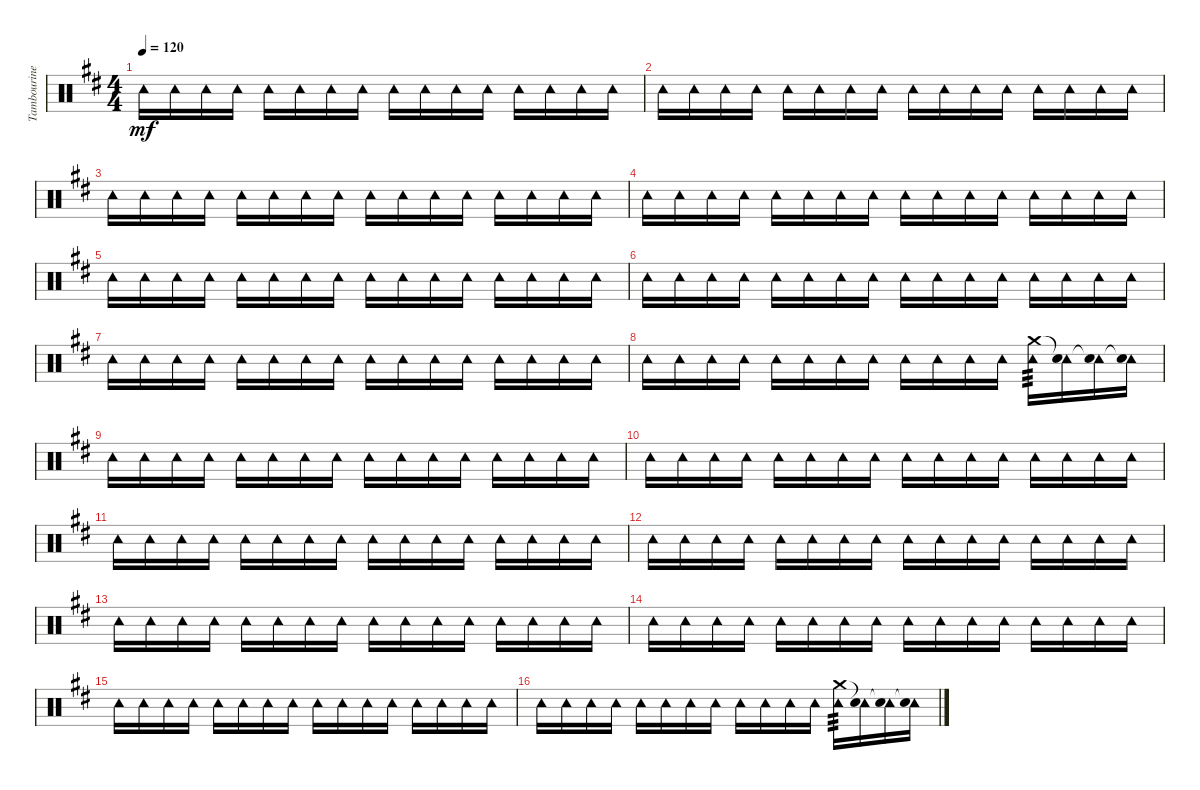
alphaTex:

\track ("Tambourine" "Tambourine") {instrument percussion}
\staff {score}
\articulation defaults
\ts (4 4)
\tempo 120
\clef neutral
\ks d "Tambourine (hit)".16{dy mf} "Tambourine (hit)".16 "Tambourine (hit)".16 "Tambourine (hit)".16 "Tambourine (hit)".16 "Tambourine (hit)".16 "Tambourine (hit)".16 "Tambourine (hit)".16 "Tambourine (hit)".16 "Tambourine (hit)".16 "Tambourine (hit)".16 "Tambourine (hit)".16 "Tambourine (hit)".16 "Tambourine (hit)".16 "Tambourine (hit)".16 "Tambourine (hit)".16
|
"Tambourine (hit)".16 "Tambourine (hit)".16 "Tambourine (hit)".16 "Tambourine (hit)".16 "Tambourine (hit)".16 "Tambourine (hit)".16 "Tambourine (hit)".16 "Tambourine (hit)".16 "Tambourine (hit)".16 "Tambourine (hit)".16 "Tambourine (hit)".16 "Tambourine (hit)".16 "Tambourine (hit)".16 "Tambourine (hit)".16 "Tambourine (hit)".16 "Tambourine (hit)".16 |
"Tambourine (hit)".16 "Tambourine (hit)".16 "Tambourine (hit)".16 "Tambourine (hit)".16 "Tambourine (hit)".16 "Tambourine (hit)".16 "Tambourine (hit)".16 "Tambourine (hit)".16 "Tambourine (hit)".16 "Tambourine (hit)".16 "Tambourine (hit)".16 "Tambourine (hit)".16 "Tambourine (hit)".16 "Tambourine (hit)".16 "Tambourine (hit)".16 "Tambourine (hit)".16 |
"Tambourine (hit)".16 "Tambourine (hit)".16 "Tambourine (hit)".16 "Tambourine (hit)".16 "Tambourine (hit)".16 "Tambourine (hit)".16 "Tambourine (hit)".16 "Tambourine (hit)".16 "Tambourine (hit)".16 "Tambourine (hit)".16 "Tambourine (hit)".16 "Tambourine (hit)".16 "Tambourine (hit)".16 "Tambourine (hit)".16 "Tambourine (hit)".16 "Tambourine (hit)".16 |
"Tambourine (hit)".16 "Tambourine (hit)".16 "Tambourine (hit)".16 "Tambourine (hit)".16 "Tambourine (hit)".16 "Tambourine (hit)".16 "Tambourine (hit)".16 "Tambourine (hit)".16 "Tambourine (hit)".16 "Tambourine (hit)".16 "Tambourine (hit)".16 "Tambourine (hit)".16 "Tambourine (hit)".16 "Tambourine (hit)".16 "Tambourine (hit)".16 "Tambourine (hit)".16 |
"Tambourine (hit)".16 "Tambourine (hit)".16 "Tambourine (hit)".16 "Tambourine (hit)".16 "Tambourine (hit)".16 "Tambourine (hit)".16 "Tambourine (hit)".16 "Tambourine (hit)".16 "Tambourine (hit)".16 "Tambourine (hit)".16 "Tambourine (hit)".16 "Tambourine (hit)".16 "Tambourine (hit)".16 "Tambourine (hit)".16 "Tambourine (hit)".16 "Tambourine (hit)".16 |
"Tambourine (hit)".16 "Tambourine (hit)".16 "Tambourine (hit)".16 "Tambourine (hit)".16 "Tambourine (hit)".16 "Tambourine (hit)".16 "Tambourine (hit)".16 "Tambourine (hit)".16 "Tambourine (hit)".16 "Tambourine (hit)".16 "Tambourine (hit)".16 "Tambourine (hit)".16 "Tambourine (hit)".16 "Tambourine (hit)".16 "Tambourine (hit)".16 "Tambourine (hit)".16 |
"Tambourine (hit)".16 "Tambourine (hit)".16 "Tambourine (hit)".16 "Tambourine (hit)".16 "Tambourine (hit)".16 "Tambourine (hit)".16 "Tambourine (hit)".16 "Tambourine (hit)".16 "Tambourine (hit)".16 "Tambourine (hit)".16 "Tambourine (hit)".16 "Tambourine (hit)".16 ("Tambourine (hit)" "Crash medium (hit)").16{tp 3} ("Tambourine (hit)" "Snare (hit)"{t}).16 ("Tambourine (hit)" "Snare (hit)"{t}).16 ("Tambourine (hit)" "Snare (hit)"{t}).16 |
"Tambourine (hit)".16 "Tambourine (hit)".16 "Tambourine (hit)".16 "Tambourine (hit)".16 "Tambourine (hit)".16 "Tambourine (hit)".16 "Tambourine (hit)".16 "Tambourine (hit)".16 "Tambourine (hit)".16 "Tambourine (hit)".16 "Tambourine (hit)".16 "Tambourine (hit)".16 "Tambourine (hit)".16 "Tambourine (hit)".16 "Tambourine (hit)".16 "Tambourine (hit)".16 |
"Tambourine (hit)".16 "Tambourine (hit)".16 "Tambourine (hit)".16 "Tambourine (hit)".16 "Tambourine (hit)".16 "Tambourine (hit)".16 "Tambourine (hit)".16 "Tambourine (hit)".16 "Tambourine (hit)".16 "Tambourine (hit)".16 "Tambourine (hit)".16 "Tambourine (hit)".16 "Tambourine (hit)".16 "Tambourine (hit)".16 "Tambourine (hit)".16 "Tambourine (hit)".16 |
"Tambourine (hit)".16 "Tambourine (hit)".16 "Tambourine (hit)".16 "Tambourine (hit)".16 "Tambourine (hit)".16 "Tambourine (hit)".16 "Tambourine (hit)".16 "Tambourine (hit)".16 "Tambourine (hit)".16 "Tambourine (hit)".16 "Tambourine (hit)".16 "Tambourine (hit)".16 "Tambourine (hit)".16 "Tambourine (hit)".16 "Tambourine (hit)".16 "Tambourine (hit)".16 |
"Tambourine (hit)".16 "Tambourine (hit)".16 "Tambourine (hit)".16 "Tambourine (hit)".16 "Tambourine (hit)".16 "Tambourine (hit)".16 "Tambourine (hit)".16 "Tambourine (hit)".16 "Tambourine (hit)".16 "Tambourine (hit)".16 "Tambourine (hit)".16 "Tambourine (hit)".16 "Tambourine (hit)".16 "Tambourine (hit)".16 "Tambourine (hit)".16 "Tambourine (hit)".16 |
"Tambourine (hit)".16 "Tambourine (hit)".16 "Tambourine (hit)".16 "Tambourine (hit)".16 "Tambourine (hit)".16 "Tambourine (hit)".16 "Tambourine (hit)".16 "Tambourine (hit)".16 "Tambourine (hit)".16 "Tambourine (hit)".16 "Tambourine (hit)".16 "Tambourine (hit)".16 "Tambourine (hit)".16 "Tambourine (hit)".16 "Tambourine (hit)".16 "Tambourine (hit)".16 |
"Tambourine (hit)".16 "Tambourine (hit)".16 "Tambourine (hit)".16 "Tambourine (hit)".16 "Tambourine (hit)".16 "Tambourine (hit)".16 "Tambourine (hit)".16 "Tambourine (hit)".16 "Tambourine (hit)".16 "Tambourine (hit)".16 "Tambourine (hit)".16 "Tambourine (hit)".16 "Tambourine (hit)".16 "Tambourine (hit)".16 "Tambourine (hit)".16 "Tambourine (hit)".16 |
"Tambourine (hit)".16 "Tambourine (hit)".16 "Tambourine (hit)".16 "Tambourine (hit)".16 "Tambourine (hit)".16 "Tambourine (hit)".16 "Tambourine (hit)".16 "Tambourine (hit)".16 "Tambourine (hit)".16 "Tambourine (hit)".16 "Tambourine (hit)".16 "Tambourine (hit)".16 "Tambourine (hit)".16 "Tambourine (hit)".16 "Tambourine (hit)".16 "Tambourine (hit)".16 |
"Tambourine (hit)".16 "Tambourine (hit)".16 "Tambourine (hit)".16 "Tambourine (hit)".16 "Tambourine (hit)".16 "Tambourine (hit)".16 "Tambourine (hit)".16 "Tambourine (hit)".16 "Tambourine (hit)".16 "Tambourine (hit)".16 "Tambourine (hit)".16 "Tambourine (hit)".16 ("Tambourine (hit)" "Crash medium (hit)").16{tp 3} ("Tambourine (hit)" "Snare (hit)"{t}).16 ("Tambourine (hit)" "Snare (hit)"{t}).16 ("Tambourine (hit)" "Snare (hit)"{t}).16
